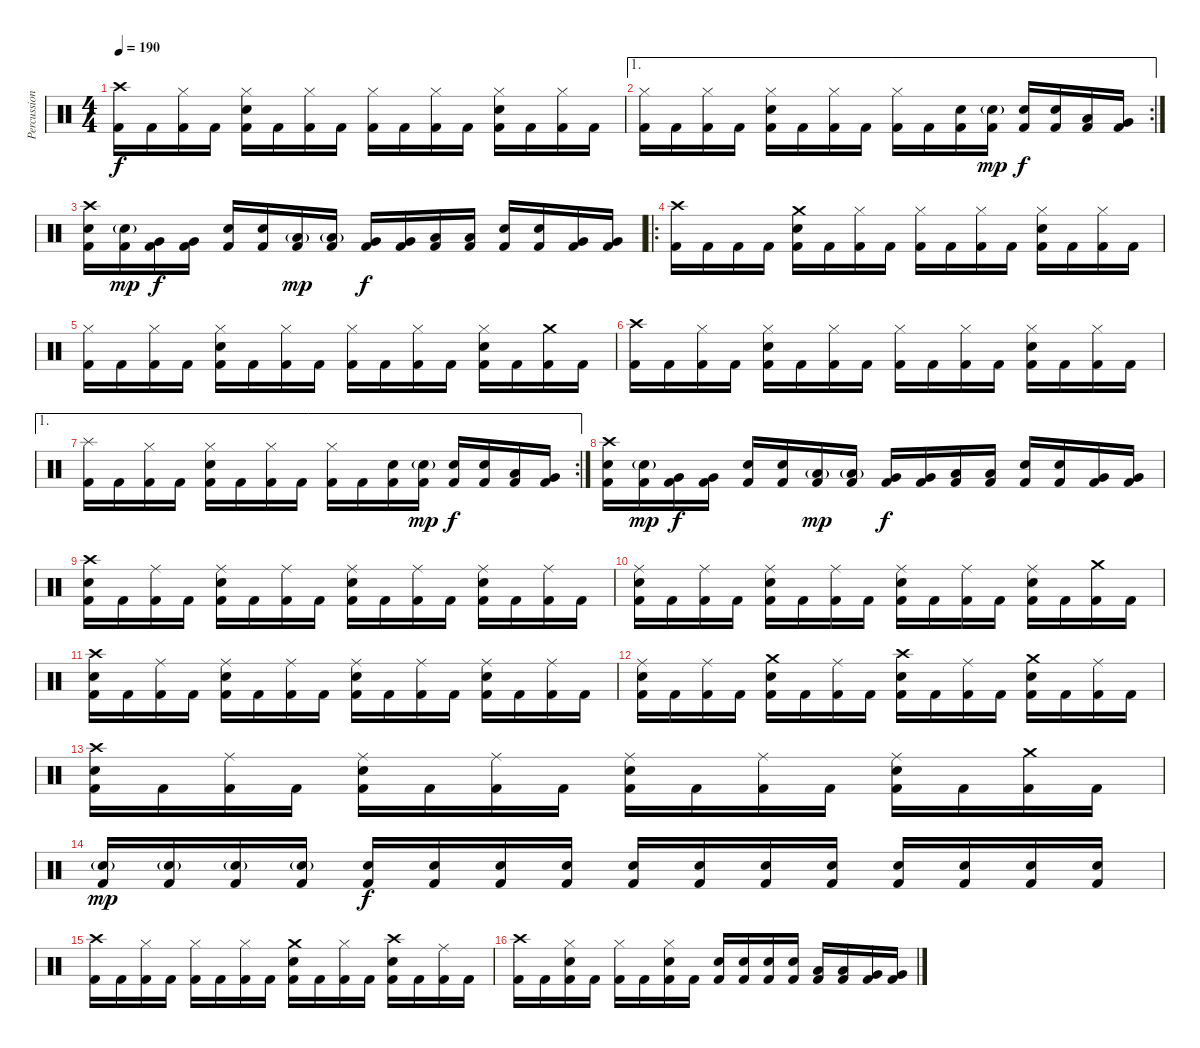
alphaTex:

\track ("Percussion" "Percussion") {instrument percussion}
\staff {score}
\articulation defaults
\ts (4 4)
\tempo 190
\clef neutral
\ks c
("Crash high (hit)" "Kick (hit) 2").16{dy f} "Kick (hit) 2".16 ("Hi-Hat (closed)" "Kick (hit) 2").16 "Kick (hit) 2".16 ("Hi-Hat (closed)" "Snare (hit) 2" "Kick (hit) 2").16 "Kick (hit) 2".16 ("Hi-Hat (closed)" "Kick (hit) 2").16 "Kick (hit) 2".16 ("Hi-Hat (closed)" "Kick (hit) 2").16 "Kick (hit) 2".16 ("Hi-Hat (closed)" "Kick (hit) 2").16 "Kick (hit) 2".16 ("Hi-Hat (closed)" "Snare (hit) 2" "Kick (hit) 2").16 "Kick (hit) 2".16 ("Hi-Hat (closed)" "Kick (hit) 2").16 "Kick (hit) 2".16 |
\ae 1
\rc 2
("Hi-Hat (closed)" "Kick (hit) 2").16 "Kick (hit) 2".16 ("Hi-Hat (closed)" "Kick (hit) 2").16 "Kick (hit) 2".16 ("Hi-Hat (closed)" "Snare (hit) 2" "Kick (hit) 2").16 "Kick (hit) 2".16 ("Hi-Hat (closed)" "Kick (hit) 2").16 "Kick (hit) 2".16 ("Hi-Hat (closed)" "Kick (hit) 2").16 "Kick (hit) 2".16 ("Snare (hit) 2" "Kick (hit) 2").16 ("Snare (hit) 2"{g} "Kick (hit) 2").16{dy mp} ("Snare (hit) 2" "Kick (hit) 2").16{dy f} ("Snare (hit) 2" "Kick (hit) 2").16 ("Low Tom (hit)" "Kick (hit) 2").16 ("Very Low Tom (hit)" "Kick (hit) 2").16 |
("Crash high (hit)" "Snare (hit) 2" "Kick (hit) 2").16 ("Snare (hit) 2"{g} "Kick (hit) 2").16{dy mp} ("Very Low Tom (hit)" "Kick (hit) 2").16{dy f} ("Very Low Tom (hit)" "Kick (hit) 2").16 ("Snare (hit) 2" "Kick (hit) 2").16 ("Snare (hit) 2" "Kick (hit) 2").16 ("Low Tom (hit)"{g} "Kick (hit) 2").16{dy mp} ("Low Tom (hit)"{g} "Kick (hit) 2").16 ("Very Low Tom (hit)" "Kick (hit) 2").16{dy f} ("Very Low Tom (hit)" "Kick (hit) 2").16 ("Low Floor Tom (hit)" "Kick (hit) 2").16 ("Low Floor Tom (hit)" "Kick (hit) 2").16 ("Snare (hit) 2" "Kick (hit) 2").16 ("Snare (hit) 2" "Kick (hit) 2").16 ("Very Low Tom (hit)" "Kick (hit) 2").16 ("Very Low Tom (hit)" "Kick (hit) 2").16 |
\ro
("Crash high (hit)" "Kick (hit) 2").16 "Kick (hit) 2".16 "Kick (hit) 2".16 "Kick (hit) 2".16 ("Crash medium (hit)" "Snare (hit) 2" "Kick (hit) 2").16 "Kick (hit) 2".16 ("Hi-Hat (closed)" "Kick (hit) 2").16 "Kick (hit) 2".16 ("Hi-Hat (closed)" "Kick (hit) 2").16 "Kick (hit) 2".16 ("Hi-Hat (closed)" "Kick (hit) 2").16 "Kick (hit) 2".16 ("Hi-Hat (closed)" "Snare (hit) 2" "Kick (hit) 2").16 "Kick (hit) 2".16 ("Hi-Hat (closed)" "Kick (hit) 2").16 "Kick (hit) 2".16 |
("Hi-Hat (closed)" "Kick (hit) 2").16 "Kick (hit) 2".16 ("Hi-Hat (closed)" "Kick (hit) 2").16 "Kick (hit) 2".16 ("Hi-Hat (closed)" "Snare (hit) 2" "Kick (hit) 2").16 "Kick (hit) 2".16 ("Hi-Hat (closed)" "Kick (hit) 2").16 "Kick (hit) 2".16 ("Hi-Hat (closed)" "Kick (hit) 2").16 "Kick (hit) 2".16 ("Hi-Hat (closed)" "Kick (hit) 2").16 "Kick (hit) 2".16 ("Hi-Hat (closed)" "Snare (hit) 2" "Kick (hit) 2").16 "Kick (hit) 2".16 ("Crash medium (hit)" "Kick (hit) 2").16 "Kick (hit) 2".16 |
("Crash high (hit)" "Kick (hit) 2").16 "Kick (hit) 2".16 ("Hi-Hat (closed)" "Kick (hit) 2").16 "Kick (hit) 2".16 ("Hi-Hat (closed)" "Snare (hit) 2" "Kick (hit) 2").16 "Kick (hit) 2".16 ("Hi-Hat (closed)" "Kick (hit) 2").16 "Kick (hit) 2".16 ("Hi-Hat (closed)" "Kick (hit) 2").16 "Kick (hit) 2".16 ("Hi-Hat (closed)" "Kick (hit) 2").16 "Kick (hit) 2".16 ("Hi-Hat (closed)" "Snare (hit) 2" "Kick (hit) 2").16 "Kick (hit) 2".16 ("Hi-Hat (closed)" "Kick (hit) 2").16 "Kick (hit) 2".16 |
\ae 1
\rc 2
("Splash (hit)" "Kick (hit) 2").16 "Kick (hit) 2".16 ("Hi-Hat (closed)" "Kick (hit) 2").16 "Kick (hit) 2".16 ("Hi-Hat (closed)" "Snare (hit) 2" "Kick (hit) 2").16 "Kick (hit) 2".16 ("Hi-Hat (closed)" "Kick (hit) 2").16 "Kick (hit) 2".16 ("Hi-Hat (closed)" "Kick (hit) 2").16 "Kick (hit) 2".16 ("Snare (hit) 2" "Kick (hit) 2").16 ("Snare (hit) 2"{g} "Kick (hit) 2").16{dy mp} ("Snare (hit) 2" "Kick (hit) 2").16{dy f} ("Snare (hit) 2" "Kick (hit) 2").16 ("Low Tom (hit)" "Kick (hit) 2").16 ("Very Low Tom (hit)" "Kick (hit) 2").16 |
("Crash high (hit)" "Snare (hit) 2" "Kick (hit) 2").16 ("Snare (hit) 2"{g} "Kick (hit) 2").16{dy mp} ("Very Low Tom (hit)" "Kick (hit) 2").16{dy f} ("Very Low Tom (hit)" "Kick (hit) 2").16 ("Snare (hit) 2" "Kick (hit) 2").16 ("Snare (hit) 2" "Kick (hit) 2").16 ("Low Tom (hit)"{g} "Kick (hit) 2").16{dy mp} ("Low Tom (hit)"{g} "Kick (hit) 2").16 ("Very Low Tom (hit)" "Kick (hit) 2").16{dy f} ("Very Low Tom (hit)" "Kick (hit) 2").16 ("Low Floor Tom (hit)" "Kick (hit) 2").16 ("Low Floor Tom (hit)" "Kick (hit) 2").16 ("Snare (hit) 2" "Kick (hit) 2").16 ("Snare (hit) 2" "Kick (hit) 2").16 ("Very Low Tom (hit)" "Kick (hit) 2").16 ("Very Low Tom (hit)" "Kick (hit) 2").16 |
("Crash high (hit)" "Snare (hit) 2" "Kick (hit) 2").16 "Kick (hit) 2".16 ("Ride (middle)" "Kick (hit) 2").16 "Kick (hit) 2".16 ("Ride (middle)" "Snare (hit) 2" "Kick (hit) 2").16 "Kick (hit) 2".16 ("Ride (middle)" "Kick (hit) 2").16 "Kick (hit) 2".16 ("Ride (middle)" "Snare (hit) 2" "Kick (hit) 2").16 "Kick (hit) 2".16 ("Ride (middle)" "Kick (hit) 2").16 "Kick (hit) 2".16 ("Ride (middle)" "Snare (hit) 2" "Kick (hit) 2").16 "Kick (hit) 2".16 ("Ride (middle)" "Kick (hit) 2").16 "Kick (hit) 2".16 |
("Ride (middle)" "Snare (hit) 2" "Kick (hit) 2").16 "Kick (hit) 2".16 ("Ride (middle)" "Kick (hit) 2").16 "Kick (hit) 2".16 ("Ride (middle)" "Snare (hit) 2" "Kick (hit) 2").16 "Kick (hit) 2".16 ("Ride (middle)" "Kick (hit) 2").16 "Kick (hit) 2".16 ("Ride (middle)" "Snare (hit) 2" "Kick (hit) 2").16 "Kick (hit) 2".16 ("Ride (middle)" "Kick (hit) 2").16 "Kick (hit) 2".16 ("Ride (middle)" "Snare (hit) 2" "Kick (hit) 2").16 "Kick (hit) 2".16 ("Crash medium (hit)" "Kick (hit) 2").16 "Kick (hit) 2".16 |
("Crash high (hit)" "Snare (hit) 2" "Kick (hit) 2").16 "Kick (hit) 2".16 ("Ride (middle)" "Kick (hit) 2").16 "Kick (hit) 2".16 ("Ride (middle)" "Snare (hit) 2" "Kick (hit) 2").16 "Kick (hit) 2".16 ("Ride (middle)" "Kick (hit) 2").16 "Kick (hit) 2".16 ("Ride (middle)" "Snare (hit) 2" "Kick (hit) 2").16 "Kick (hit) 2".16 ("Ride (middle)" "Kick (hit) 2").16 "Kick (hit) 2".16 ("Ride (middle)" "Snare (hit) 2" "Kick (hit) 2").16 "Kick (hit) 2".16 ("Ride (middle)" "Kick (hit) 2").16 "Kick (hit) 2".16 |
("Ride (middle)" "Snare (hit) 2" "Kick (hit) 2").16 "Kick (hit) 2".16 ("Ride (middle)" "Kick (hit) 2").16 "Kick (hit) 2".16 ("Crash medium (hit)" "Snare (hit) 2" "Kick (hit) 2").16 "Kick (hit) 2".16 ("Ride (middle)" "Kick (hit) 2").16 "Kick (hit) 2".16 ("Crash high (hit)" "Snare (hit) 2" "Kick (hit) 2").16 "Kick (hit) 2".16 ("Ride (middle)" "Kick (hit) 2").16 "Kick (hit) 2".16 ("Crash medium (hit)" "Snare (hit) 2" "Kick (hit) 2").16 "Kick (hit) 2".16 ("Ride (middle)" "Kick (hit) 2").16 "Kick (hit) 2".16 |
("Crash high (hit)" "Snare (hit) 2" "Kick (hit) 2").16 "Kick (hit) 2".16 ("Ride (middle)" "Kick (hit) 2").16 "Kick (hit) 2".16 ("Ride (middle)" "Snare (hit) 2" "Kick (hit) 2").16 "Kick (hit) 2".16 ("Ride (middle)" "Kick (hit) 2").16 "Kick (hit) 2".16 ("Ride (middle)" "Snare (hit) 2" "Kick (hit) 2").16 "Kick (hit) 2".16 ("Ride (middle)" "Kick (hit) 2").16 "Kick (hit) 2".16 ("Ride (middle)" "Snare (hit) 2" "Kick (hit) 2").16 "Kick (hit) 2".16 ("Crash medium (hit)" "Kick (hit) 2").16 "Kick (hit) 2".16 |
("Snare (hit) 2"{g} "Kick (hit) 2").16{dy mp} ("Snare (hit) 2"{g} "Kick (hit) 2").16 ("Snare (hit) 2"{g} "Kick (hit) 2").16 ("Snare (hit) 2"{g} "Kick (hit) 2").16 ("Snare (hit) 2" "Kick (hit) 2").16{dy f} ("Snare (hit) 2" "Kick (hit) 2").16 ("Snare (hit) 2" "Kick (hit) 2").16 ("Snare (hit) 2" "Kick (hit) 2").16 ("Snare (hit) 2" "Kick (hit) 2").16 ("Snare (hit) 2" "Kick (hit) 2").16 ("Snare (hit) 2" "Kick (hit) 2").16 ("Snare (hit) 2" "Kick (hit) 2").16 ("Snare (hit) 2" "Kick (hit) 2").16 ("Snare (hit) 2" "Kick (hit) 2").16 ("Snare (hit) 2" "Kick (hit) 2").16 ("Snare (hit) 2" "Kick (hit) 2").16 |
("Crash high (hit)" "Kick (hit) 2").16 "Kick (hit) 2".16 ("Hi-Hat (closed)" "Kick (hit) 2").16 "Kick (hit) 2".16 ("Hi-Hat (closed)" "Kick (hit) 2").16 "Kick (hit) 2".16 ("Hi-Hat (closed)" "Kick (hit) 2").16 "Kick (hit) 2".16 ("Crash medium (hit)" "Snare (hit) 2" "Kick (hit) 2").16 "Kick (hit) 2".16 ("Hi-Hat (closed)" "Kick (hit) 2").16 "Kick (hit) 2".16 ("Crash high (hit)" "Snare (hit) 2" "Kick (hit) 2").16 "Kick (hit) 2".16 ("Ride (middle)" "Kick (hit) 2").16 "Kick (hit) 2".16 |
("Crash high (hit)" "Kick (hit) 2").16 "Kick (hit) 2".16 ("Hi-Hat (closed)" "Snare (hit) 2" "Kick (hit) 2").16 "Kick (hit) 2".16 ("Hi-Hat (closed)" "Kick (hit) 2").16 "Kick (hit) 2".16 ("Hi-Hat (closed)" "Snare (hit) 2" "Kick (hit) 2").16 "Kick (hit) 2".16 ("Snare (hit) 2" "Kick (hit) 2").16 ("Snare (hit) 2" "Kick (hit) 2").16 ("Snare (hit) 2" "Kick (hit) 2").16 ("Snare (hit) 2" "Kick (hit) 2").16 ("Low Tom (hit)" "Kick (hit) 2").16 ("Low Tom (hit)" "Kick (hit) 2").16 ("Very Low Tom (hit)" "Kick (hit) 2").16 ("Very Low Tom (hit)" "Kick (hit) 2").16
